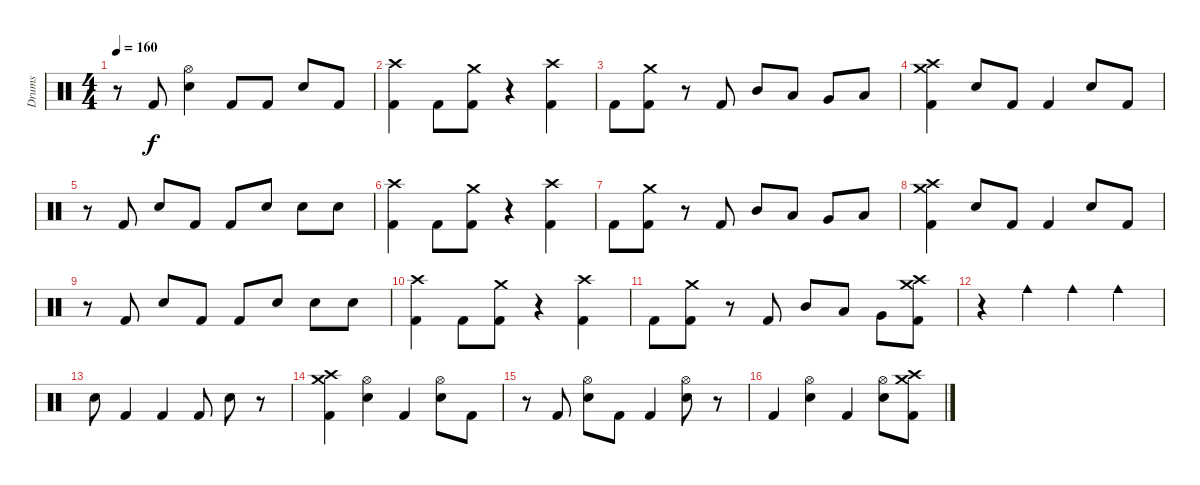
\track ("Drums" "Drums") {instrument percussion}
\staff {score}
\articulation defaults
\ts (4 4)
\tempo 160
\clef neutral
\ks c
r.8{dy f} "Kick (hit) 2".8 ("Hi-Hat (open)" "Snare (hit) 2").4 "Kick (hit) 2".8 "Kick (hit) 2".8 "Snare (hit) 2".8 "Kick (hit) 2".8 |
("Crash high (hit)" "Kick (hit) 2").4 "Kick (hit) 2".8 ("Crash medium (hit)" "Kick (hit) 2").8 r.4 ("Crash high (hit)" "Kick (hit) 2").4 |
"Kick (hit) 2".8 ("Crash medium (hit)" "Kick (hit) 2").8 r.8 "Kick (hit) 2".8 "Mid Tom (hit)".8 "Low Tom (hit)".8 "Very Low Tom (hit)".8 "Low Floor Tom (hit)".8 |
("Crash medium (hit)" "Crash high (hit)" "Kick (hit) 2").4 "Snare (hit) 2".8 "Kick (hit) 2".8 "Kick (hit) 2".4 "Snare (hit) 2".8 "Kick (hit) 2".8 |
r.8 "Kick (hit) 2".8 "Snare (hit) 2".8 "Kick (hit) 2".8 "Kick (hit) 2".8 "Snare (hit) 2".8 "Snare (hit) 2".8 "Snare (hit) 2".8 |
("Crash high (hit)" "Kick (hit) 2").4 "Kick (hit) 2".8 ("Crash medium (hit)" "Kick (hit) 2").8 r.4 ("Crash high (hit)" "Kick (hit) 2").4 |
"Kick (hit) 2".8 ("Crash medium (hit)" "Kick (hit) 2").8 r.8 "Kick (hit) 2".8 "Mid Tom (hit)".8 "Low Tom (hit)".8 "Very Low Tom (hit)".8 "Low Floor Tom (hit)".8 |
("Crash medium (hit)" "Crash high (hit)" "Kick (hit) 2").4 "Snare (hit) 2".8 "Kick (hit) 2".8 "Kick (hit) 2".4 "Snare (hit) 2".8 "Kick (hit) 2".8 |
r.8 "Kick (hit) 2".8 "Snare (hit) 2".8 "Kick (hit) 2".8 "Kick (hit) 2".8 "Snare (hit) 2".8 "Snare (hit) 2".8 "Snare (hit) 2".8 |
("Crash high (hit)" "Kick (hit) 2").4 "Kick (hit) 2".8 ("Crash medium (hit)" "Kick (hit) 2").8 r.4 ("Crash high (hit)" "Kick (hit) 2").4 |
"Kick (hit) 2".8 ("Crash medium (hit)" "Kick (hit) 2").8 r.8 "Kick (hit) 2".8 "Mid Tom (hit)".8 "Low Tom (hit)".8 "Very Low Tom (hit)".8 ("Crash medium (hit)" "Crash high (hit)" "Kick (hit) 2").8 |
r.4 "Cowbell medium (hit)".4 "Cowbell medium (hit)".4 "Cowbell medium (hit)".4 |
"Snare (hit) 2".8 "Kick (hit) 2".4 "Kick (hit) 2".4 "Kick (hit) 2".8 "Snare (hit) 2".8 r.8 |
("Crash medium (hit)" "Crash high (hit)" "Kick (hit) 2").4 ("Hi-Hat (open)" "Snare (hit) 2").4 "Kick (hit) 2".4 ("Hi-Hat (open)" "Snare (hit) 2").8 "Kick (hit) 2".8 |
r.8 "Kick (hit) 2".8 ("Hi-Hat (open)" "Snare (hit) 2").8 "Kick (hit) 2".8 "Kick (hit) 2".4 ("Hi-Hat (open)" "Snare (hit) 2").8 r.8 |
"Kick (hit) 2".4 ("Hi-Hat (open)" "Snare (hit) 2").4 "Kick (hit) 2".4 ("Hi-Hat (open)" "Snare (hit) 2").8 ("Crash medium (hit)" "Crash high (hit)" "Kick (hit) 2").8
